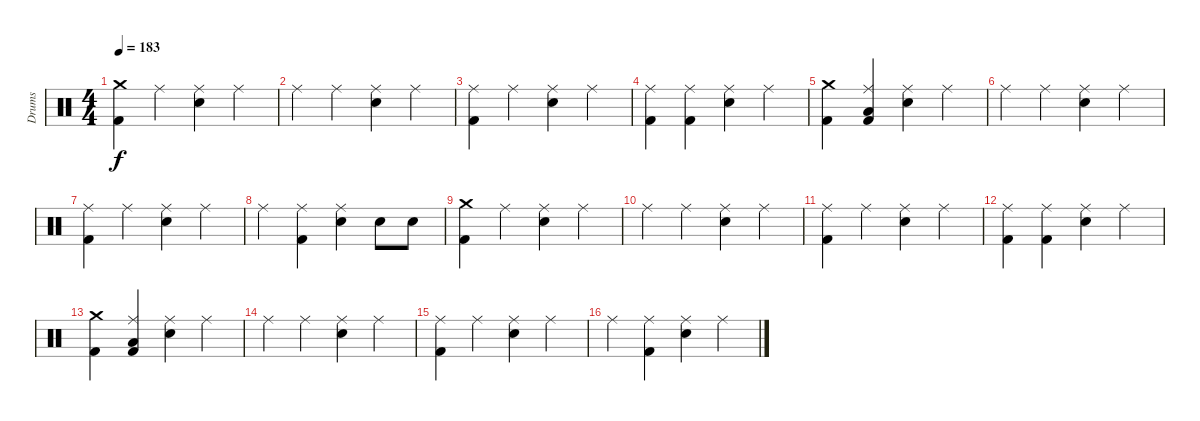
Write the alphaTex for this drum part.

\track ("Drums" "Drums") {instrument percussion}
\staff {score}
\articulation defaults
\ts (4 4)
\tempo 183
\clef neutral
\ks c
("Crash medium (hit)" "Kick (hit) 2").4{dy f} "Ride (middle)".4 ("Ride (middle)" "Electric Snare (hit)").4 "Ride (middle)".4 |
"Ride (middle)".4 "Ride (middle)".4 ("Ride (middle)" "Electric Snare (hit)").4 "Ride (middle)".4 |
("Ride (middle)" "Kick (hit) 2").4 "Ride (middle)".4 ("Ride (middle)" "Electric Snare (hit)").4 "Ride (middle)".4 |
("Ride (middle)" "Kick (hit) 2").4 ("Ride (middle)" "Kick (hit) 2").4 ("Ride (middle)" "Electric Snare (hit)").4 "Ride (middle)".4 |
("Crash medium (hit)" "Kick (hit) 2").4 ("Ride (middle)" "Low Floor Tom (hit)" "Kick (hit) 2").4 ("Ride (middle)" "Electric Snare (hit)").4 "Ride (middle)".4 |
"Ride (middle)".4 "Ride (middle)".4 ("Ride (middle)" "Electric Snare (hit)").4 "Ride (middle)".4 |
("Ride (middle)" "Kick (hit) 2").4 "Ride (middle)".4 ("Ride (middle)" "Electric Snare (hit)").4 "Ride (middle)".4 |
"Ride (middle)".4 ("Ride (middle)" "Kick (hit) 2").4 ("Ride (middle)" "Electric Snare (hit)").4 "Electric Snare (hit)".8 "Electric Snare (hit)".8 |
\section ("" "")
("Crash medium (hit)" "Kick (hit) 2").4 "Ride (middle)".4 ("Ride (middle)" "Electric Snare (hit)").4 "Ride (middle)".4 |
"Ride (middle)".4 "Ride (middle)".4 ("Ride (middle)" "Electric Snare (hit)").4 "Ride (middle)".4 |
("Ride (middle)" "Kick (hit) 2").4 "Ride (middle)".4 ("Ride (middle)" "Electric Snare (hit)").4 "Ride (middle)".4 |
("Ride (middle)" "Kick (hit) 2").4 ("Ride (middle)" "Kick (hit) 2").4 ("Ride (middle)" "Electric Snare (hit)").4 "Ride (middle)".4 |
("Crash medium (hit)" "Kick (hit) 2").4 ("Ride (middle)" "Low Floor Tom (hit)" "Kick (hit) 2").4 ("Ride (middle)" "Electric Snare (hit)").4 "Ride (middle)".4 |
"Ride (middle)".4 "Ride (middle)".4 ("Ride (middle)" "Electric Snare (hit)").4 "Ride (middle)".4 |
("Ride (middle)" "Kick (hit) 2").4 "Ride (middle)".4 ("Ride (middle)" "Electric Snare (hit)").4 "Ride (middle)".4 |
"Ride (middle)".4 ("Ride (middle)" "Kick (hit) 2").4 ("Ride (middle)" "Electric Snare (hit)").4 "Ride (middle)".4
